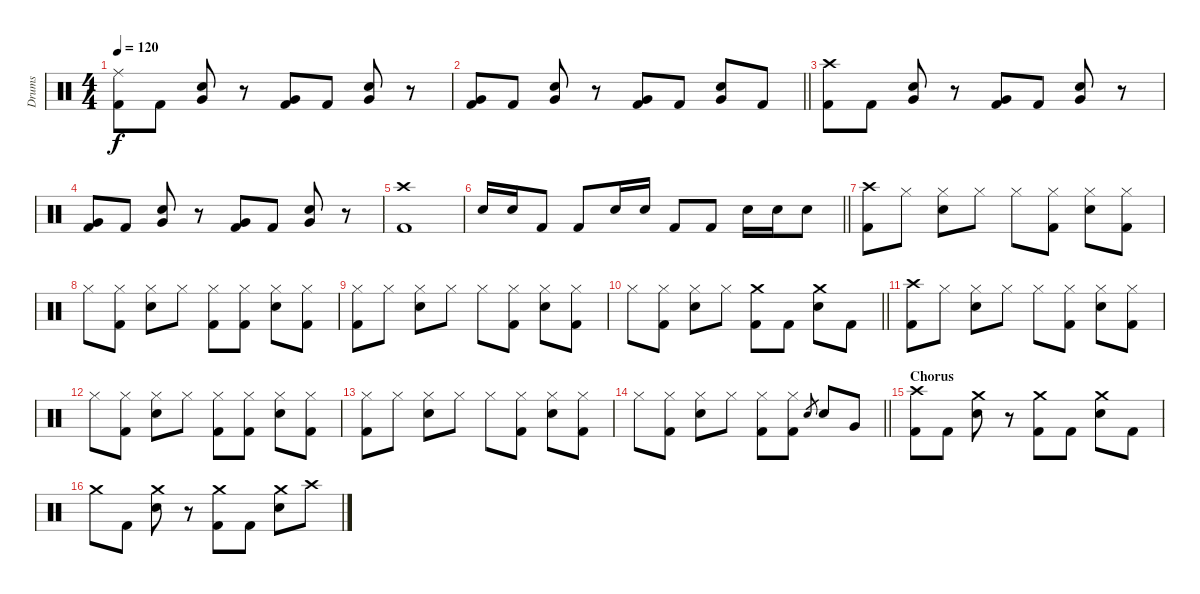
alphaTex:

\track ("Drums" "Drums") {instrument percussion}
\staff {score}
\articulation defaults
\ts (4 4)
\tempo 120
\clef neutral
\ks c
("Ride (middle)" "Kick (hit) 2").8{dy f} "Kick (hit) 2".8 ("Very Low Tom (hit)" "Snare (hit) 2").8 r.8 ("Very Low Tom (hit)" "Kick (hit) 2").8 "Kick (hit) 2".8 ("Very Low Tom (hit)" "Snare (hit) 2").8 r.8 |
\barLineRight lightlight
("Very Low Tom (hit)" "Kick (hit) 2").8 "Kick (hit) 2".8 ("Very Low Tom (hit)" "Snare (hit) 2").8 r.8 ("Very Low Tom (hit)" "Kick (hit) 2").8 "Kick (hit) 2".8 ("Very Low Tom (hit)" "Snare (hit) 2").8 "Kick (hit) 2".8 |
("Crash high (hit)" "Kick (hit) 2").8 "Kick (hit) 2".8 ("Very Low Tom (hit)" "Snare (hit) 2").8 r.8 ("Very Low Tom (hit)" "Kick (hit) 2").8 "Kick (hit) 2".8 ("Very Low Tom (hit)" "Snare (hit) 2").8 r.8 |
("Very Low Tom (hit)" "Kick (hit) 2").8 "Kick (hit) 2".8 ("Very Low Tom (hit)" "Snare (hit) 2").8 r.8 ("Very Low Tom (hit)" "Kick (hit) 2").8 "Kick (hit) 2".8 ("Very Low Tom (hit)" "Snare (hit) 2").8 r.8 |
("Crash high (hit)" "Kick (hit) 2").1 |
\barLineRight lightlight "Snare (hit) 2".16 "Snare (hit) 2".16 "Kick (hit) 2".8 "Kick (hit) 2".8 "Snare (hit) 2".16 "Snare (hit) 2".16 "Kick (hit) 2".8 "Kick (hit) 2".8 "Snare (hit) 2".16 "Snare (hit) 2".16 "Snare (hit) 2".8
|
("Crash high (hit)" "Kick (hit) 2").8 "Hi-Hat (closed)".8 ("Hi-Hat (closed)" "Snare (hit) 2").8 "Hi-Hat (closed)".8 "Hi-Hat (closed)".8 ("Hi-Hat (closed)" "Kick (hit) 2").8 ("Hi-Hat (closed)" "Snare (hit) 2").8 ("Hi-Hat (closed)" "Kick (hit) 2").8 |
"Hi-Hat (closed)".8 ("Hi-Hat (closed)" "Kick (hit) 2").8 ("Hi-Hat (closed)" "Snare (hit) 2").8 "Hi-Hat (closed)".8 ("Hi-Hat (closed)" "Kick (hit) 2").8 ("Hi-Hat (closed)" "Kick (hit) 2").8 ("Hi-Hat (closed)" "Snare (hit) 2").8 ("Hi-Hat (closed)" "Kick (hit) 2").8 |
("Hi-Hat (closed)" "Kick (hit) 2").8 "Hi-Hat (closed)".8 ("Hi-Hat (closed)" "Snare (hit) 2").8 "Hi-Hat (closed)".8 "Hi-Hat (closed)".8 ("Hi-Hat (closed)" "Kick (hit) 2").8 ("Hi-Hat (closed)" "Snare (hit) 2").8 ("Hi-Hat (closed)" "Kick (hit) 2").8 |
\barLineRight lightlight "Hi-Hat (closed)".8
("Hi-Hat (closed)" "Kick (hit) 2").8 ("Hi-Hat (closed)" "Snare (hit) 2").8 "Hi-Hat (closed)".8 ("Crash medium (hit)" "Kick (hit) 2").8 "Kick (hit) 2".8 ("Crash medium (hit)" "Snare (hit) 2").8 "Kick (hit) 2".8 |
("Crash high (hit)" "Kick (hit) 2").8 "Hi-Hat (closed)".8 ("Hi-Hat (closed)" "Snare (hit) 2").8 "Hi-Hat (closed)".8 "Hi-Hat (closed)".8 ("Hi-Hat (closed)" "Kick (hit) 2").8 ("Hi-Hat (closed)" "Snare (hit) 2").8 ("Hi-Hat (closed)" "Kick (hit) 2").8 |
"Hi-Hat (closed)".8 ("Hi-Hat (closed)" "Kick (hit) 2").8 ("Hi-Hat (closed)" "Snare (hit) 2").8 "Hi-Hat (closed)".8 ("Hi-Hat (closed)" "Kick (hit) 2").8 ("Hi-Hat (closed)" "Kick (hit) 2").8 ("Hi-Hat (closed)" "Snare (hit) 2").8 ("Hi-Hat (closed)" "Kick (hit) 2").8 |
("Hi-Hat (closed)" "Kick (hit) 2").8 "Hi-Hat (closed)".8 ("Hi-Hat (closed)" "Snare (hit) 2").8 "Hi-Hat (closed)".8 "Hi-Hat (closed)".8 ("Hi-Hat (closed)" "Kick (hit) 2").8 ("Hi-Hat (closed)" "Snare (hit) 2").8 ("Hi-Hat (closed)" "Kick (hit) 2").8 |
\barLineRight lightlight "Hi-Hat (closed)".8
("Hi-Hat (closed)" "Kick (hit) 2").8 ("Hi-Hat (closed)" "Snare (hit) 2").8 "Hi-Hat (closed)".8 ("Hi-Hat (closed)" "Kick (hit) 2").8 ("Hi-Hat (closed)" "Kick (hit) 2").8 "Snare (hit) 2".8{gr} "Snare (hit) 2".8 "Very Low Tom (hit)".8 |
\section ("" "Chorus")
("Crash high (hit)" "Kick (hit) 2").8 "Kick (hit) 2".8 ("Crash medium (hit)" "Snare (hit) 2").8 r.8 ("Crash medium (hit)" "Kick (hit) 2").8 "Kick (hit) 2".8 ("Crash medium (hit)" "Snare (hit) 2").8 "Kick (hit) 2".8 |
"Crash medium (hit)".8 "Kick (hit) 2".8 ("Crash medium (hit)" "Snare (hit) 2").8 r.8 ("Crash medium (hit)" "Kick (hit) 2").8 "Kick (hit) 2".8 ("Crash medium (hit)" "Snare (hit) 2").8 "Crash high (hit)".8
